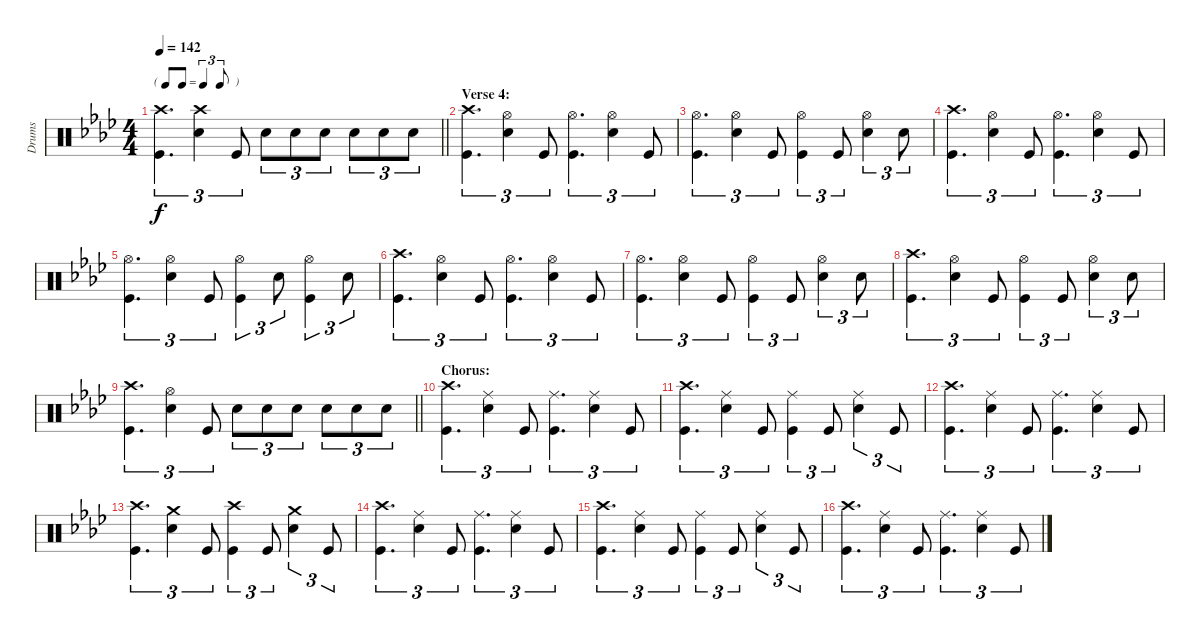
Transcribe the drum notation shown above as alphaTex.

\track ("Drums" "Drums") {instrument percussion}
\staff {score}
\articulation defaults
\ts (4 4)
\tf triplet8th
\tempo 142
\clef neutral
\barLineRight lightlight
\ks ab
("Kick (hit)" "Crash high (hit)").4{d tu (3 2) dy f} ("Snare (hit) 2" "Crash high (hit)").4{tu (3 2)} "Kick (hit)".8{tu (3 2)} "Snare (hit) 2".8{tu (3 2)} "Snare (hit) 2".8{tu (3 2)} "Snare (hit) 2".8{tu (3 2)} "Snare (hit) 2".8{tu (3 2)} "Snare (hit) 2".8{tu (3 2)} "Snare (hit) 2".8{tu (3 2)} |
\section ("" "Verse 4:")
("Crash high (hit)" "Kick (hit)").4{d tu (3 2)} ("Hi-Hat (open)" "Snare (hit) 2").4{tu (3 2)} "Kick (hit)".8{tu (3 2)} ("Kick (hit)" "Hi-Hat (open)").4{d tu (3 2)} ("Snare (hit) 2" "Hi-Hat (open)").4{tu (3 2)} "Kick (hit)".8{tu (3 2)} |
("Kick (hit)" "Hi-Hat (open)").4{d tu (3 2)} ("Hi-Hat (open)" "Snare (hit) 2").4{tu (3 2)} "Kick (hit)".8{tu (3 2)} ("Kick (hit)" "Hi-Hat (open)").4{tu (3 2)} "Kick (hit)".8{tu (3 2)} ("Snare (hit) 2" "Hi-Hat (open)").4{tu (3 2)} "Snare (hit) 2".8{tu (3 2)} |
("Crash high (hit)" "Kick (hit)").4{d tu (3 2)} ("Hi-Hat (open)" "Snare (hit) 2").4{tu (3 2)} "Kick (hit)".8{tu (3 2)} ("Kick (hit)" "Hi-Hat (open)").4{d tu (3 2)} ("Snare (hit) 2" "Hi-Hat (open)").4{tu (3 2)} "Kick (hit)".8{tu (3 2)} |
("Kick (hit)" "Hi-Hat (open)").4{d tu (3 2)} ("Snare (hit) 2" "Hi-Hat (open)").4{tu (3 2)} "Kick (hit)".8{tu (3 2)} ("Kick (hit)" "Hi-Hat (open)").4{tu (3 2)} "Snare (hit) 2".8{tu (3 2)} ("Kick (hit)" "Hi-Hat (open)").4{tu (3 2)} "Snare (hit) 2".8{tu (3 2)} |
("Kick (hit)" "Crash high (hit)").4{d tu (3 2)} ("Snare (hit) 2" "Hi-Hat (open)").4{tu (3 2)} "Kick (hit)".8{tu (3 2)} ("Kick (hit)" "Hi-Hat (open)").4{d tu (3 2)} ("Snare (hit) 2" "Hi-Hat (open)").4{tu (3 2)} "Kick (hit)".8{tu (3 2)} |
("Hi-Hat (open)" "Kick (hit)").4{d tu (3 2)} ("Hi-Hat (open)" "Snare (hit) 2").4{tu (3 2)} "Kick (hit)".8{tu (3 2)} ("Kick (hit)" "Hi-Hat (open)").4{tu (3 2)} "Kick (hit)".8{tu (3 2)} ("Snare (hit) 2" "Hi-Hat (open)").4{tu (3 2)} "Snare (hit) 2".8{tu (3 2)} |
("Kick (hit)" "Crash high (hit)").4{d tu (3 2)} ("Hi-Hat (open)" "Snare (hit) 2").4{tu (3 2)} "Kick (hit)".8{tu (3 2)} ("Kick (hit)" "Hi-Hat (open)").4{tu (3 2)} "Kick (hit)".8{tu (3 2)} ("Snare (hit) 2" "Hi-Hat (open)").4{tu (3 2)} "Snare (hit) 2".8{tu (3 2)} |
\barLineRight lightlight
("Kick (hit)" "Crash high (hit)").4{d tu (3 2)} ("Snare (hit) 2" "Hi-Hat (open)").4{tu (3 2)} "Kick (hit)".8{tu (3 2)} "Snare (hit) 2".8{tu (3 2)} "Snare (hit) 2".8{tu (3 2)} "Snare (hit) 2".8{tu (3 2)} "Snare (hit) 2".8{tu (3 2)} "Snare (hit) 2".8{tu (3 2)} "Snare (hit) 2".8{tu (3 2)} |
\section ("" "Chorus:")
("Crash high (hit)" "Kick (hit)").4{d tu (3 2)} ("Snare (hit) 2" "Ride (middle)").4{tu (3 2)} "Kick (hit)".8{tu (3 2)} ("Kick (hit)" "Ride (middle)").4{d tu (3 2)} ("Snare (hit) 2" "Ride (middle)").4{tu (3 2)} "Kick (hit)".8{tu (3 2)} |
("Kick (hit)" "Crash high (hit)").4{d tu (3 2)} ("Snare (hit) 2" "Ride (middle)").4{tu (3 2)} "Kick (hit)".8{tu (3 2)} ("Kick (hit)" "Ride (middle)").4{tu (3 2)} "Kick (hit)".8{tu (3 2)} ("Snare (hit) 2" "Ride (middle)").4{tu (3 2)} "Kick (hit)".8{tu (3 2)} |
("Crash high (hit)" "Kick (hit)").4{d tu (3 2)} ("Snare (hit) 2" "Ride (middle)").4{tu (3 2)} "Kick (hit)".8{tu (3 2)} ("Kick (hit)" "Ride (middle)").4{d tu (3 2)} ("Snare (hit) 2" "Ride (middle)").4{tu (3 2)} "Kick (hit)".8{tu (3 2)} |
("Kick (hit)" "Crash high (hit)").4{d tu (3 2)} ("Snare (hit) 2" "Crash medium (hit)").4{tu (3 2)} "Kick (hit)".8{tu (3 2)} ("Kick (hit)" "Crash high (hit)").4{tu (3 2)} "Kick (hit)".8{tu (3 2)} ("Snare (hit) 2" "Crash medium (hit)").4{tu (3 2)} "Kick (hit)".8{tu (3 2)} |
("Crash high (hit)" "Kick (hit)").4{d tu (3 2)} ("Snare (hit) 2" "Ride (middle)").4{tu (3 2)} "Kick (hit)".8{tu (3 2)} ("Kick (hit)" "Ride (middle)").4{d tu (3 2)} ("Snare (hit) 2" "Ride (middle)").4{tu (3 2)} "Kick (hit)".8{tu (3 2)} |
("Kick (hit)" "Crash high (hit)").4{d tu (3 2)} ("Snare (hit) 2" "Ride (middle)").4{tu (3 2)} "Kick (hit)".8{tu (3 2)} ("Kick (hit)" "Ride (middle)").4{tu (3 2)} "Kick (hit)".8{tu (3 2)} ("Snare (hit) 2" "Ride (middle)").4{tu (3 2)} "Kick (hit)".8{tu (3 2)} |
("Crash high (hit)" "Kick (hit)").4{d tu (3 2)} ("Snare (hit) 2" "Ride (middle)").4{tu (3 2)} "Kick (hit)".8{tu (3 2)} ("Kick (hit)" "Ride (middle)").4{d tu (3 2)} ("Snare (hit) 2" "Ride (middle)").4{tu (3 2)} "Kick (hit)".8{tu (3 2)}
